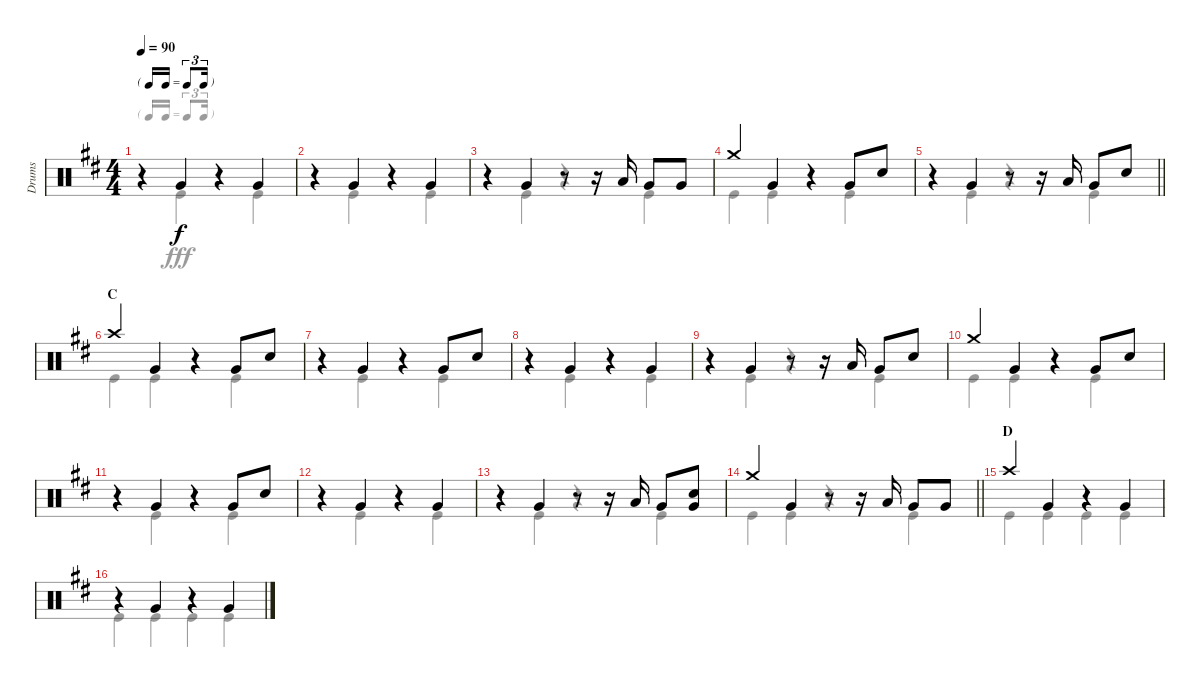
\track ("Drums" "Drums") {instrument percussion}
\staff {score}
\articulation defaults
\voice
\ts (4 4)
\tf triplet16th
\tempo 90
\clef neutral
\ks d
r.4{dy f} "Very Low Tom (hit)".4 r.4 "Very Low Tom (hit)".4 |
r.4 "Very Low Tom (hit)".4 r.4 "Very Low Tom (hit)".4 |
r.4 "Very Low Tom (hit)".4 r.8 r.16 "Low Tom (hit)".16 "Very Low Tom (hit)".8 "Very Low Tom (hit)".8 |
"Crash medium (hit)".4 "Very Low Tom (hit)".4 r.4 "Very Low Tom (hit)".8 "Snare (hit) 2".8 |
\barLineRight lightlight
r.4 "Very Low Tom (hit)".4 r.8 r.16 "Low Tom (hit)".16 "Very Low Tom (hit)".8 "Snare (hit) 2".8 |
\section ("" "C")
"Crash high (hit)".4 "Very Low Tom (hit)".4 r.4 "Very Low Tom (hit)".8 "Snare (hit) 2".8 |
r.4 "Very Low Tom (hit)".4 r.4 "Very Low Tom (hit)".8 "Snare (hit) 2".8 |
r.4 "Very Low Tom (hit)".4 r.4 "Very Low Tom (hit)".4 |
r.4 "Very Low Tom (hit)".4 r.8 r.16 "Low Tom (hit)".16 "Very Low Tom (hit)".8 "Snare (hit) 2".8 |
"Crash medium (hit)".4 "Very Low Tom (hit)".4 r.4 "Very Low Tom (hit)".8 "Snare (hit) 2".8 |
r.4 "Very Low Tom (hit)".4 r.4 "Very Low Tom (hit)".8 "Snare (hit) 2".8 |
r.4 "Very Low Tom (hit)".4 r.4 "Very Low Tom (hit)".4 |
r.4 "Very Low Tom (hit)".4 r.8 r.16 "Low Tom (hit)".16 "Very Low Tom (hit)".8 ("Snare (hit) 2" "Very Low Tom (hit)").8 |
\barLineRight lightlight "Crash medium (hit)".4 "Very Low Tom (hit)".4
r.8 r.16 "Low Tom (hit)".16 "Very Low Tom (hit)".8 "Very Low Tom (hit)".8 |
\section ("" "D")
"Crash high (hit)".4 "Very Low Tom (hit)".4 r.4 "Very Low Tom (hit)".4 |
r.4 "Very Low Tom (hit)".4 r.4 "Very Low Tom (hit)".4
\voice
\clef neutral
\ottava regular
\simile none
\ks d
r.4{dy fff} "Kick (hit)".4 r.4 "Kick (hit)".4 |
r.4 "Kick (hit)".4 r.4 "Kick (hit)".4 |
r.4 "Kick (hit)".4 r.4 "Kick (hit)".4 |
"Kick (hit)".4 "Kick (hit)".4 r.4 "Kick (hit)".4 |
\barLineRight lightlight
r.4 "Kick (hit)".4 r.4 "Kick (hit)".4 |
"Kick (hit)".4 "Kick (hit)".4 r.4 "Kick (hit)".4 |
r.4 "Kick (hit)".4 r.4 "Kick (hit)".4 |
r.4 "Kick (hit)".4 r.4 "Kick (hit)".4 |
r.4 "Kick (hit)".4 r.4 "Kick (hit)".4 |
"Kick (hit)".4 "Kick (hit)".4 r.4 "Kick (hit)".4 |
r.4 "Kick (hit)".4 r.4 "Kick (hit)".4 |
r.4 "Kick (hit)".4 r.4 "Kick (hit)".4 |
r.4 "Kick (hit)".4 r.4 "Kick (hit)".4 |
\barLineRight lightlight "Kick (hit)".4 "Kick (hit)".4
r.4 "Kick (hit)".4 |
"Kick (hit)".4 "Kick (hit)".4 "Kick (hit)".4 "Kick (hit)".4 |
"Kick (hit)".4 "Kick (hit)".4 "Kick (hit)".4 "Kick (hit)".4
